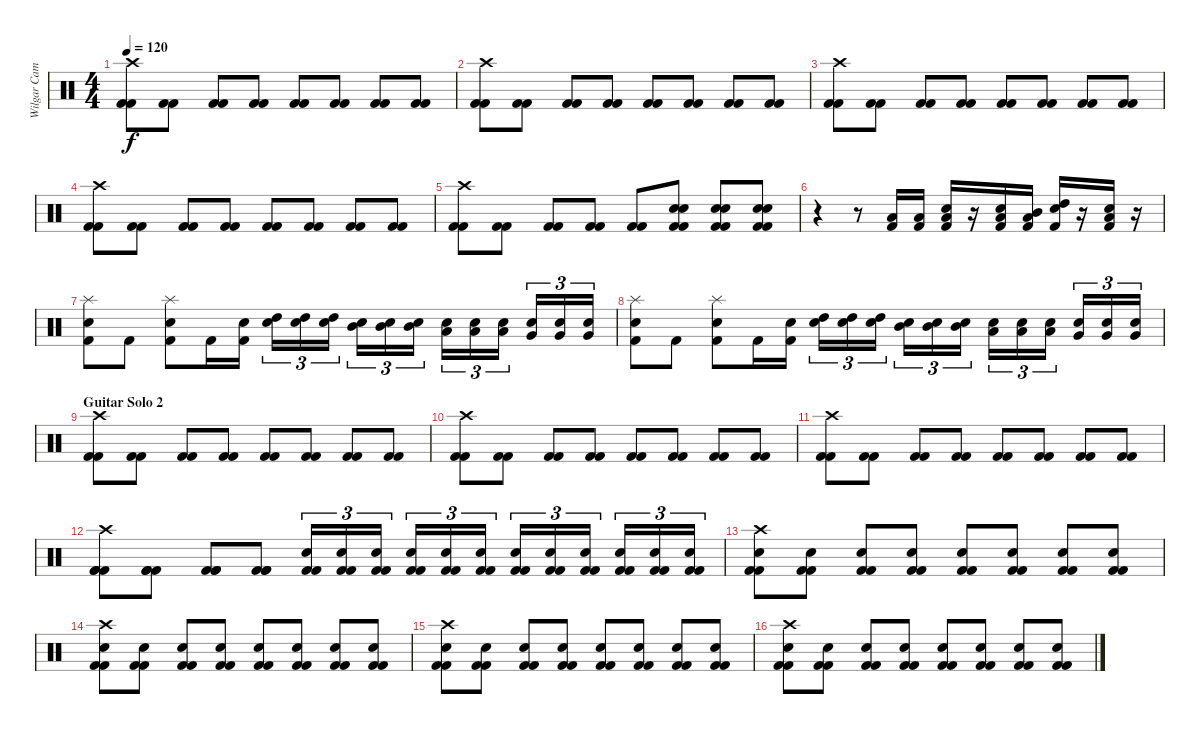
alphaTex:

\track ("Wilgar Campbell" "Wilgar Cam") {instrument percussion}
\staff {score}
\articulation defaults
\ts (4 4)
\tempo 120
\clef neutral
\ks c
("Crash high (hit)" "Kick (hit) 2" "Kick (hit) 2").8{dy f} ("Kick (hit) 2" "Kick (hit) 2").8 ("Kick (hit) 2" "Kick (hit) 2").8 ("Kick (hit) 2" "Kick (hit) 2").8 ("Kick (hit) 2" "Kick (hit) 2").8 ("Kick (hit) 2" "Kick (hit) 2").8 ("Kick (hit) 2" "Kick (hit) 2").8 ("Kick (hit) 2" "Kick (hit) 2").8 |
("Crash high (hit)" "Kick (hit) 2" "Kick (hit) 2").8 ("Kick (hit) 2" "Kick (hit) 2").8 ("Kick (hit) 2" "Kick (hit) 2").8 ("Kick (hit) 2" "Kick (hit) 2").8 ("Kick (hit) 2" "Kick (hit) 2").8 ("Kick (hit) 2" "Kick (hit) 2").8 ("Kick (hit) 2" "Kick (hit) 2").8 ("Kick (hit) 2" "Kick (hit) 2").8 |
("Crash high (hit)" "Kick (hit) 2" "Kick (hit) 2").8 ("Kick (hit) 2" "Kick (hit) 2").8 ("Kick (hit) 2" "Kick (hit) 2").8 ("Kick (hit) 2" "Kick (hit) 2").8 ("Kick (hit) 2" "Kick (hit) 2").8 ("Kick (hit) 2" "Kick (hit) 2").8 ("Kick (hit) 2" "Kick (hit) 2").8 ("Kick (hit) 2" "Kick (hit) 2").8 |
("Crash high (hit)" "Kick (hit) 2" "Kick (hit) 2").8 ("Kick (hit) 2" "Kick (hit) 2").8 ("Kick (hit) 2" "Kick (hit) 2").8 ("Kick (hit) 2" "Kick (hit) 2").8 ("Kick (hit) 2" "Kick (hit) 2").8 ("Kick (hit) 2" "Kick (hit) 2").8 ("Kick (hit) 2" "Kick (hit) 2").8 ("Kick (hit) 2" "Kick (hit) 2").8 |
("Crash high (hit)" "Kick (hit) 2" "Kick (hit) 2").8 ("Kick (hit) 2" "Kick (hit) 2").8 ("Kick (hit) 2" "Kick (hit) 2").8 ("Kick (hit) 2" "Kick (hit) 2").8 ("Kick (hit) 2" "Kick (hit) 2").8 ("Electric Snare (hit)" "Electric Snare (hit)" "Kick (hit) 2" "Kick (hit) 2").8 ("Electric Snare (hit)" "Electric Snare (hit)" "Kick (hit) 2" "Kick (hit) 2").8 ("Snare (hit) 2" "Electric Snare (hit)" "Kick (hit) 2" "Kick (hit) 2").8 |
r.4 r.8 ("Low Tom (hit)" "Kick (hit) 2").16 ("Low Tom (hit)" "Kick (hit) 2").16 ("Snare (hit) 2" "Low Tom (hit)" "Kick (hit) 2").16 r.16 ("Snare (hit) 2" "Low Tom (hit)" "Kick (hit) 2").16 ("Mid Tom (hit)" "Low Tom (hit)" "Kick (hit) 2").16 ("Snare (hit) 2" "High Tom (hit)" "Kick (hit) 2").16 r.16 ("Snare (hit) 2" "Low Tom (hit)" "Kick (hit) 2").16 r.16 |
("Splash (hit)" "Snare (hit) 2" "Kick (hit) 2").8 "Kick (hit) 2".8 ("Splash (hit)" "Electric Snare (hit)" "Kick (hit) 2").8 "Kick (hit) 2".16 ("Snare (hit) 2" "Kick (hit) 2").16 ("High Tom (hit)" "Electric Snare (hit)").16{tu (3 2)} ("High Tom (hit)" "Electric Snare (hit)").16{tu (3 2)} ("High Tom (hit)" "Electric Snare (hit)").16{tu (3 2)} ("Mid Tom (hit)" "Electric Snare (hit)").16{tu (3 2)} ("Mid Tom (hit)" "Electric Snare (hit)").16{tu (3 2)} ("Mid Tom (hit)" "Electric Snare (hit)").16{tu (3 2)} ("Low Tom (hit)" "Snare (hit) 2").16{tu (3 2)} ("Low Tom (hit)" "Snare (hit) 2").16{tu (3 2)} ("Low Tom (hit)" "Snare (hit) 2").16{tu (3 2)} ("Very Low Tom (hit)" "Snare (hit) 2").16{tu (3 2)} ("Very Low Tom (hit)" "Snare (hit) 2").16{tu (3 2)} ("Very Low Tom (hit)" "Snare (hit) 2").16{tu (3 2)} |
("Splash (hit)" "Snare (hit) 2" "Kick (hit) 2").8 "Kick (hit) 2".8 ("Splash (hit)" "Electric Snare (hit)" "Kick (hit) 2").8 "Kick (hit) 2".16 ("Snare (hit) 2" "Kick (hit) 2").16 ("High Tom (hit)" "Electric Snare (hit)").16{tu (3 2)} ("High Tom (hit)" "Electric Snare (hit)").16{tu (3 2)} ("High Tom (hit)" "Electric Snare (hit)").16{tu (3 2)} ("Mid Tom (hit)" "Electric Snare (hit)").16{tu (3 2)} ("Mid Tom (hit)" "Electric Snare (hit)").16{tu (3 2)} ("Mid Tom (hit)" "Electric Snare (hit)").16{tu (3 2)} ("Low Tom (hit)" "Snare (hit) 2").16{tu (3 2)} ("Low Tom (hit)" "Snare (hit) 2").16{tu (3 2)} ("Low Tom (hit)" "Snare (hit) 2").16{tu (3 2)} ("Very Low Tom (hit)" "Snare (hit) 2").16{tu (3 2)} ("Very Low Tom (hit)" "Snare (hit) 2").16{tu (3 2)} ("Very Low Tom (hit)" "Snare (hit) 2").16{tu (3 2)} |
\section ("" "Guitar Solo 2")
("Crash high (hit)" "Kick (hit) 2" "Kick (hit) 2").8 ("Kick (hit) 2" "Kick (hit) 2").8 ("Kick (hit) 2" "Kick (hit) 2").8 ("Kick (hit) 2" "Kick (hit) 2").8 ("Kick (hit) 2" "Kick (hit) 2").8 ("Kick (hit) 2" "Kick (hit) 2").8 ("Kick (hit) 2" "Kick (hit) 2").8 ("Kick (hit) 2" "Kick (hit) 2").8 |
("Crash high (hit)" "Kick (hit) 2" "Kick (hit) 2").8 ("Kick (hit) 2" "Kick (hit) 2").8 ("Kick (hit) 2" "Kick (hit) 2").8 ("Kick (hit) 2" "Kick (hit) 2").8 ("Kick (hit) 2" "Kick (hit) 2").8 ("Kick (hit) 2" "Kick (hit) 2").8 ("Kick (hit) 2" "Kick (hit) 2").8 ("Kick (hit) 2" "Kick (hit) 2").8 |
("Crash high (hit)" "Kick (hit) 2" "Kick (hit) 2").8 ("Kick (hit) 2" "Kick (hit) 2").8 ("Kick (hit) 2" "Kick (hit) 2").8 ("Kick (hit) 2" "Kick (hit) 2").8 ("Kick (hit) 2" "Kick (hit) 2").8 ("Kick (hit) 2" "Kick (hit) 2").8 ("Kick (hit) 2" "Kick (hit) 2").8 ("Kick (hit) 2" "Kick (hit) 2").8 |
("Crash high (hit)" "Kick (hit) 2" "Kick (hit) 2" "Kick (hit) 2").8 ("Kick (hit) 2" "Kick (hit) 2" "Kick (hit) 2").8 ("Kick (hit) 2" "Kick (hit) 2" "Kick (hit) 2").8 ("Kick (hit) 2" "Kick (hit) 2" "Kick (hit) 2").8 ("Snare (hit) 2" "Kick (hit) 2" "Kick (hit) 2").16{tu (3 2)} ("Snare (hit) 2" "Kick (hit) 2" "Kick (hit) 2").16{tu (3 2)} ("Snare (hit) 2" "Kick (hit) 2" "Kick (hit) 2").16{tu (3 2)} ("Snare (hit) 2" "Kick (hit) 2" "Kick (hit) 2").16{tu (3 2)} ("Snare (hit) 2" "Kick (hit) 2" "Kick (hit) 2").16{tu (3 2)} ("Snare (hit) 2" "Kick (hit) 2" "Kick (hit) 2").16{tu (3 2)} ("Snare (hit) 2" "Kick (hit) 2" "Kick (hit) 2").16{tu (3 2)} ("Snare (hit) 2" "Kick (hit) 2" "Kick (hit) 2").16{tu (3 2)} ("Snare (hit) 2" "Kick (hit) 2" "Kick (hit) 2").16{tu (3 2)} ("Snare (hit) 2" "Kick (hit) 2" "Kick (hit) 2").16{tu (3 2)} ("Snare (hit) 2" "Kick (hit) 2" "Kick (hit) 2").16{tu (3 2)} ("Snare (hit) 2" "Kick (hit) 2" "Kick (hit) 2").16{tu (3 2)} |
("Crash high (hit)" "Snare (hit) 2" "Kick (hit) 2" "Kick (hit) 2").8 ("Snare (hit) 2" "Kick (hit) 2" "Kick (hit) 2").8 ("Snare (hit) 2" "Kick (hit) 2" "Kick (hit) 2").8 ("Snare (hit) 2" "Kick (hit) 2" "Kick (hit) 2").8 ("Snare (hit) 2" "Kick (hit) 2" "Kick (hit) 2").8 ("Snare (hit) 2" "Kick (hit) 2" "Kick (hit) 2").8 ("Snare (hit) 2" "Kick (hit) 2" "Kick (hit) 2").8 ("Snare (hit) 2" "Kick (hit) 2" "Kick (hit) 2").8 |
("Crash high (hit)" "Snare (hit) 2" "Kick (hit) 2" "Kick (hit) 2").8 ("Snare (hit) 2" "Kick (hit) 2" "Kick (hit) 2").8 ("Snare (hit) 2" "Kick (hit) 2" "Kick (hit) 2").8 ("Snare (hit) 2" "Kick (hit) 2" "Kick (hit) 2").8 ("Snare (hit) 2" "Kick (hit) 2" "Kick (hit) 2").8 ("Snare (hit) 2" "Kick (hit) 2" "Kick (hit) 2").8 ("Snare (hit) 2" "Kick (hit) 2" "Kick (hit) 2").8 ("Snare (hit) 2" "Kick (hit) 2" "Kick (hit) 2").8 |
("Crash high (hit)" "Snare (hit) 2" "Kick (hit) 2" "Kick (hit) 2").8 ("Snare (hit) 2" "Kick (hit) 2" "Kick (hit) 2").8 ("Snare (hit) 2" "Kick (hit) 2" "Kick (hit) 2").8 ("Snare (hit) 2" "Kick (hit) 2" "Kick (hit) 2").8 ("Snare (hit) 2" "Kick (hit) 2" "Kick (hit) 2").8 ("Snare (hit) 2" "Kick (hit) 2" "Kick (hit) 2").8 ("Snare (hit) 2" "Kick (hit) 2" "Kick (hit) 2").8 ("Snare (hit) 2" "Kick (hit) 2" "Kick (hit) 2").8 |
("Crash high (hit)" "Snare (hit) 2" "Kick (hit) 2" "Kick (hit) 2").8 ("Snare (hit) 2" "Kick (hit) 2" "Kick (hit) 2").8 ("Snare (hit) 2" "Kick (hit) 2" "Kick (hit) 2").8 ("Snare (hit) 2" "Kick (hit) 2" "Kick (hit) 2").8 ("Snare (hit) 2" "Kick (hit) 2" "Kick (hit) 2").8 ("Snare (hit) 2" "Kick (hit) 2" "Kick (hit) 2").8 ("Snare (hit) 2" "Kick (hit) 2" "Kick (hit) 2").8 ("Snare (hit) 2" "Kick (hit) 2" "Kick (hit) 2").8
